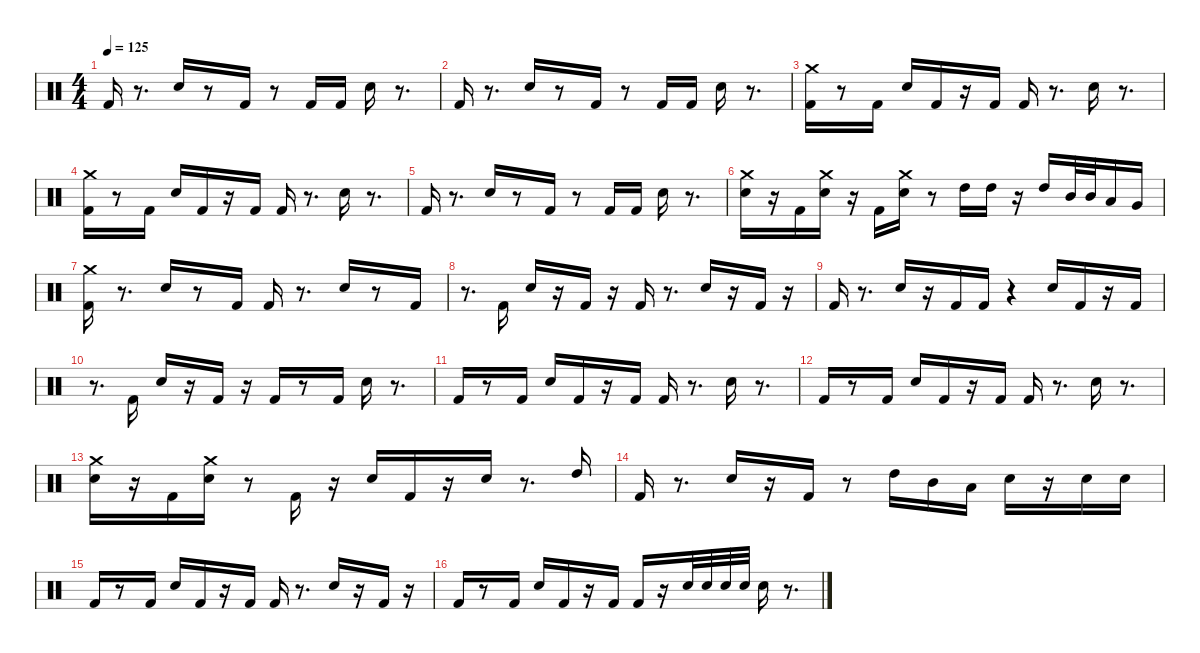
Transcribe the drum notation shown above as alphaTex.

\defaultSystemsLayout 4
\hideDynamics
\bracketExtendMode nobrackets
\singleTrackTrackNamePolicy hidden
\multiTrackTrackNamePolicy hidden
\firstSystemTrackNameMode fullname
\firstSystemTrackNameOrientation horizontal
\otherSystemsTrackNameOrientation horizontal
\track ("Bateria" "drm.") {instrument percussion}
\staff {score}
\articulation defaults
\ts (4 4)
\tempo 125
\clef neutral
\ks c "Kick (hit) 2".16{dy f beam Up}
r.8{d beam Up} "Snare (hit) 2".16{beam Up} r.8{beam Up} "Kick (hit) 2".16{beam Up} r.8{beam Up} "Kick (hit) 2".16{beam Up} "Kick (hit) 2".16{beam Up} "Snare (hit) 2".16{beam Down} r.8{d beam Down} |
"Kick (hit) 2".16{beam Up} r.8{d beam Up} "Snare (hit) 2".16{beam Up} r.8{beam Up} "Kick (hit) 2".16{beam Up} r.8{beam Up} "Kick (hit) 2".16{beam Up} "Kick (hit) 2".16{beam Up} "Snare (hit) 2".16{beam Down} r.8{d beam Down} |
("Kick (hit) 2" "Crash medium (hit)").16{beam Down} r.8{beam Down} "Kick (hit) 2".16{beam Down} "Snare (hit) 2".16{beam Up} "Kick (hit) 2".16{beam Up} r.16{beam Up} "Kick (hit) 2".16{beam Up} "Kick (hit) 2".16{beam Up} r.8{d beam Up} "Snare (hit) 2".16{beam Down} r.8{d beam Down} |
("Kick (hit) 2" "Crash medium (hit)").16{beam Down} r.8{beam Down} "Kick (hit) 2".16{beam Down} "Snare (hit) 2".16{beam Up} "Kick (hit) 2".16{beam Up} r.16{beam Up} "Kick (hit) 2".16{beam Up} "Kick (hit) 2".16{beam Up} r.8{d beam Up} "Snare (hit) 2".16{beam Down} r.8{d beam Down} |
"Kick (hit) 2".16{beam Up} r.8{d beam Up} "Snare (hit) 2".16{beam Up} r.8{beam Up} "Kick (hit) 2".16{beam Up} r.8{beam Up} "Kick (hit) 2".16{beam Up} "Kick (hit) 2".16{beam Up} "Snare (hit) 2".16{beam Down} r.8{d beam Down} |
("Snare (hit) 2" "Crash medium (hit)").16{beam Down} r.16{beam Down} "Kick (hit) 2".16{beam Down} ("Snare (hit) 2" "Crash medium (hit)").16{beam Down} r.16{beam Down} "Kick (hit) 2".16{beam Down} ("Snare (hit) 2" "Crash medium (hit)").16{beam Down} r.8{beam Down} "High Tom (hit)".16{beam Down} "High Tom (hit)".16{beam Down} r.16{beam Down} "High Tom (hit)".16{beam Up} "Mid Tom (hit)".32{beam Up} "Mid Tom (hit)".32{beam Up} "Low Tom (hit)".16{beam Up} "Very Low Tom (hit)".16{beam Up} |
("Crash medium (hit)" "Kick (hit) 2").16{beam Down} r.8{d beam Down} "Snare (hit) 2".16{beam Up} r.8{beam Up} "Kick (hit) 2".16{beam Up} "Kick (hit) 2".16{beam Up} r.8{d beam Up} "Snare (hit) 2".16{beam Up} r.8{beam Up} "Kick (hit) 2".16{beam Up} |
r.8{d beam Down} "Kick (hit) 2".16{beam Up} "Snare (hit) 2".16{beam Up} r.16{beam Up} "Kick (hit) 2".16{beam Up} r.16{beam Up} "Kick (hit) 2".16{beam Up} r.8{d beam Up} "Snare (hit) 2".16{beam Up} r.16{beam Up} "Kick (hit) 2".16{beam Up} r.16{beam Up} |
"Kick (hit) 2".16{beam Up} r.8{d beam Up} "Snare (hit) 2".16{beam Up} r.16{beam Up} "Kick (hit) 2".16{beam Up} "Kick (hit) 2".16{beam Up} r.4{beam Up} "Snare (hit) 2".16{beam Up} "Kick (hit) 2".16{beam Up} r.16{beam Up} "Kick (hit) 2".16{beam Up} |
r.8{d beam Down} "Kick (hit) 2".16{beam Up} "Snare (hit) 2".16{beam Up} r.16{beam Up} "Kick (hit) 2".16{beam Up} r.16{beam Up} "Kick (hit) 2".16{beam Up} r.8{beam Up} "Kick (hit) 2".16{beam Up} "Snare (hit) 2".16{beam Down} r.8{d beam Down} |
"Kick (hit) 2".16{beam Up} r.8{beam Up} "Kick (hit) 2".16{beam Up} "Snare (hit) 2".16{beam Up} "Kick (hit) 2".16{beam Up} r.16{beam Up} "Kick (hit) 2".16{beam Up} "Kick (hit) 2".16{beam Up} r.8{d beam Up} "Snare (hit) 2".16{beam Down} r.8{d beam Down} |
"Kick (hit) 2".16{beam Up} r.8{beam Up} "Kick (hit) 2".16{beam Up} "Snare (hit) 2".16{beam Up} "Kick (hit) 2".16{beam Up} r.16{beam Up} "Kick (hit) 2".16{beam Up} "Kick (hit) 2".16{beam Up} r.8{d beam Up} "Snare (hit) 2".16{beam Down} r.8{d beam Down} |
("Crash medium (hit)" "Snare (hit) 2").16{beam Down} r.16{beam Down} "Kick (hit) 2".16{beam Down} ("Crash medium (hit)" "Snare (hit) 2").16{beam Down} r.8{beam Down} "Kick (hit) 2".16{beam Up} r.16{beam Up} "Snare (hit) 2".16{beam Up} "Kick (hit) 2".16{beam Up} r.16{beam Up} "Snare (hit) 2".16{beam Up} r.8{d beam Up} "High Tom (hit)".16{beam Down} |
"Kick (hit) 2".16{beam Up} r.8{d beam Up} "Snare (hit) 2".16{beam Up} r.16{beam Up} "Kick (hit) 2".16{beam Up} r.8{beam Up} "High Tom (hit)".16{beam Down} "Mid Tom (hit)".16{beam Down} "Low Tom (hit)".16{beam Down} "Snare (hit) 2".16{beam Down} r.16{beam Down} "Snare (hit) 2".16{beam Down} "Snare (hit) 2".16{beam Down} |
"Kick (hit) 2".16{beam Up} r.8{beam Up} "Kick (hit) 2".16{beam Up} "Snare (hit) 2".16{beam Up} "Kick (hit) 2".16{beam Up} r.16{beam Up} "Kick (hit) 2".16{beam Up} "Kick (hit) 2".16{beam Up} r.8{d beam Up} "Snare (hit) 2".16{beam Up} r.16{beam Up} "Kick (hit) 2".16{beam Up} r.16{beam Up} |
"Kick (hit) 2".16{beam Up} r.8{beam Up} "Kick (hit) 2".16{beam Up} "Snare (hit) 2".16{beam Up} "Kick (hit) 2".16{beam Up} r.16{beam Up} "Kick (hit) 2".16{beam Up} "Kick (hit) 2".16{beam Up} r.16{beam Up} "Snare (hit) 2".32{beam Up} "Snare (hit) 2".32{beam Up} "Snare (hit) 2".32{beam Up} "Snare (hit) 2".32{beam Up} "Snare (hit) 2".16{beam Down} r.8{d beam Down}
